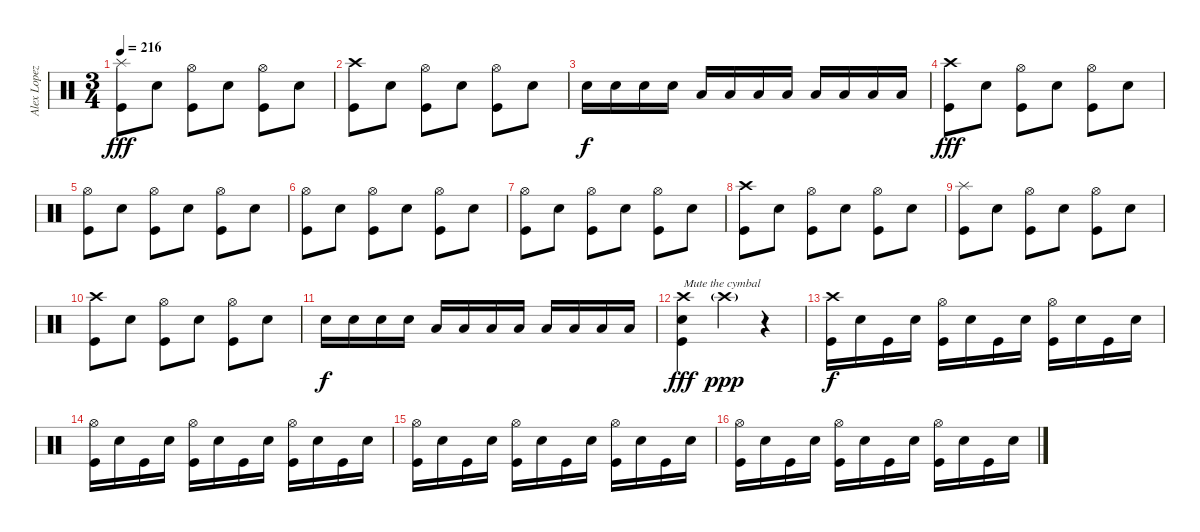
\track ("Alex Lopez" "Alex Lopez") {instrument percussion}
\staff {score}
\articulation defaults
\ts (3 4)
\tempo 216
\clef neutral
\ks c
("Splash (hit)" "Kick (hit)").8{dy fff} "Electric Snare (hit)".8 ("Hi-Hat (open)" "Kick (hit)").8 "Electric Snare (hit)".8 ("Hi-Hat (open)" "Kick (hit)").8 "Electric Snare (hit)".8 |
("Crash high (hit)" "Kick (hit)").8 "Electric Snare (hit)".8 ("Hi-Hat (open)" "Kick (hit)").8 "Electric Snare (hit)".8 ("Hi-Hat (open)" "Kick (hit)").8 "Electric Snare (hit)".8 |
"Electric Snare (hit)".16{dy f} "Electric Snare (hit)".16 "Electric Snare (hit)".16 "Electric Snare (hit)".16 "Low Tom (hit)".16 "Low Tom (hit)".16 "Low Tom (hit)".16 "Low Tom (hit)".16 "Low Floor Tom (hit)".16 "Low Floor Tom (hit)".16 "Low Floor Tom (hit)".16 "Low Floor Tom (hit)".16 |
("Crash high (hit)" "Kick (hit)").8{dy fff} "Electric Snare (hit)".8 ("Hi-Hat (open)" "Kick (hit)").8 "Electric Snare (hit)".8 ("Hi-Hat (open)" "Kick (hit)").8 "Electric Snare (hit)".8 |
("Hi-Hat (open)" "Kick (hit)").8 "Electric Snare (hit)".8 ("Hi-Hat (open)" "Kick (hit)").8 "Electric Snare (hit)".8 ("Hi-Hat (open)" "Kick (hit)").8 "Electric Snare (hit)".8 |
("Hi-Hat (open)" "Kick (hit)").8 "Electric Snare (hit)".8 ("Hi-Hat (open)" "Kick (hit)").8 "Electric Snare (hit)".8 ("Hi-Hat (open)" "Kick (hit)").8 "Electric Snare (hit)".8 |
("Hi-Hat (open)" "Kick (hit)").8 "Electric Snare (hit)".8 ("Hi-Hat (open)" "Kick (hit)").8 "Electric Snare (hit)".8 ("Hi-Hat (open)" "Kick (hit)").8 "Electric Snare (hit)".8 |
("Crash high (hit)" "Kick (hit)").8 "Electric Snare (hit)".8 ("Hi-Hat (open)" "Kick (hit)").8 "Electric Snare (hit)".8 ("Hi-Hat (open)" "Kick (hit)").8 "Electric Snare (hit)".8 |
("Splash (hit)" "Kick (hit)").8 "Electric Snare (hit)".8 ("Hi-Hat (open)" "Kick (hit)").8 "Electric Snare (hit)".8 ("Hi-Hat (open)" "Kick (hit)").8 "Electric Snare (hit)".8 |
("Crash high (hit)" "Kick (hit)").8 "Electric Snare (hit)".8 ("Hi-Hat (open)" "Kick (hit)").8 "Electric Snare (hit)".8 ("Hi-Hat (open)" "Kick (hit)").8 "Electric Snare (hit)".8 |
"Electric Snare (hit)".16{dy f} "Electric Snare (hit)".16 "Electric Snare (hit)".16 "Electric Snare (hit)".16 "Low Tom (hit)".16 "Low Tom (hit)".16 "Low Tom (hit)".16 "Low Tom (hit)".16 "Low Floor Tom (hit)".16 "Low Floor Tom (hit)".16 "Low Floor Tom (hit)".16 "Low Floor Tom (hit)".16 |
("Crash high (hit)" "Electric Snare (hit)" "Kick (hit)").4{txt "Mute the cymbal" dy fff} "Crash high (hit)"{g}.4{dy ppp} r.4 |
("Crash high (hit)" "Kick (hit)").16{dy f} "Electric Snare (hit)".16 "Kick (hit)".16 "Electric Snare (hit)".16 ("Hi-Hat (open)" "Kick (hit)").16 "Electric Snare (hit)".16 "Kick (hit)".16 "Electric Snare (hit)".16 ("Hi-Hat (open)" "Kick (hit)").16 "Electric Snare (hit)".16 "Kick (hit)".16 "Electric Snare (hit)".16 |
("Hi-Hat (open)" "Kick (hit)").16 "Electric Snare (hit)".16 "Kick (hit)".16 "Electric Snare (hit)".16 ("Hi-Hat (open)" "Kick (hit)").16 "Electric Snare (hit)".16 "Kick (hit)".16 "Electric Snare (hit)".16 ("Hi-Hat (open)" "Kick (hit)").16 "Electric Snare (hit)".16 "Kick (hit)".16 "Electric Snare (hit)".16 |
("Hi-Hat (open)" "Kick (hit)").16 "Electric Snare (hit)".16 "Kick (hit)".16 "Electric Snare (hit)".16 ("Hi-Hat (open)" "Kick (hit)").16 "Electric Snare (hit)".16 "Kick (hit)".16 "Electric Snare (hit)".16 ("Hi-Hat (open)" "Kick (hit)").16 "Electric Snare (hit)".16 "Kick (hit)".16 "Electric Snare (hit)".16 |
("Hi-Hat (open)" "Kick (hit)").16 "Electric Snare (hit)".16 "Kick (hit)".16 "Electric Snare (hit)".16 ("Hi-Hat (open)" "Kick (hit)").16 "Electric Snare (hit)".16 "Kick (hit)".16 "Electric Snare (hit)".16 ("Hi-Hat (open)" "Kick (hit)").16 "Electric Snare (hit)".16 "Kick (hit)".16 "Electric Snare (hit)".16
